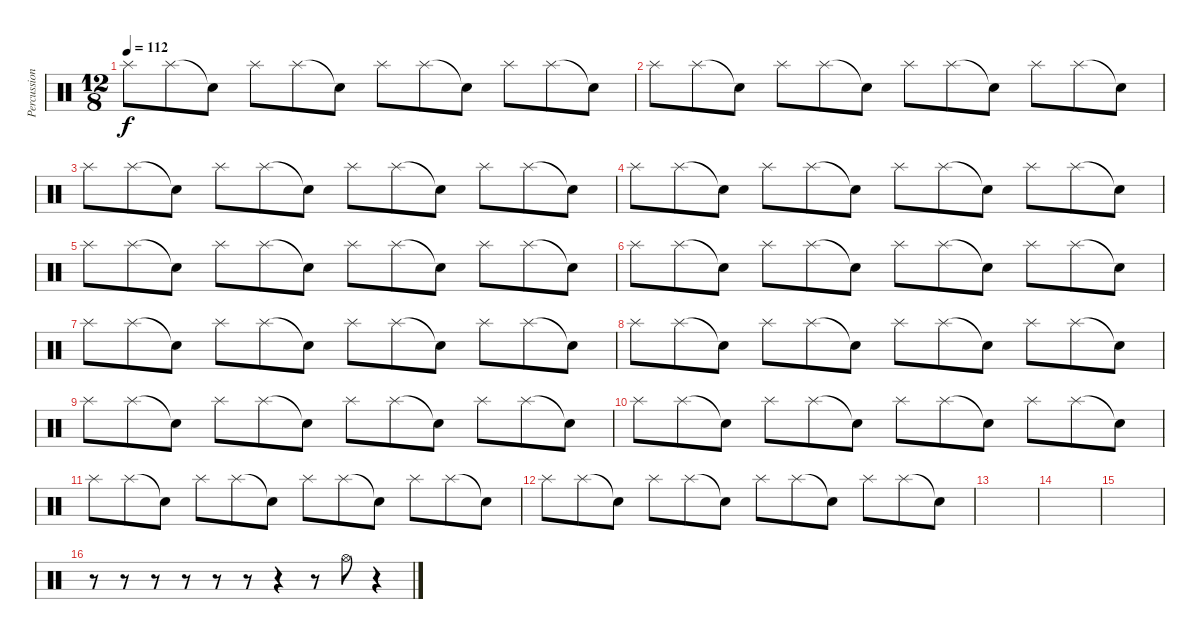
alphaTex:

\track ("Percussions" "Percussion") {instrument percussion}
\staff {score}
\articulation defaults
\ts (12 8)
\tempo 112
\clef neutral
\ks c "Splash (hit)".8{dy f} "Splash (hit)".8 "Snare (hit)"{t}.8 "Splash (hit)".8 "Splash (hit)".8 "Snare (hit)"{t}.8 "Splash (hit)".8 "Splash (hit)".8 "Snare (hit)"{t}.8 "Splash (hit)".8 "Splash (hit)".8 "Snare (hit)"{t}.8
|
"Splash (hit)".8 "Splash (hit)".8 "Snare (hit)"{t}.8 "Splash (hit)".8 "Splash (hit)".8 "Snare (hit)"{t}.8 "Splash (hit)".8 "Splash (hit)".8 "Snare (hit)"{t}.8 "Splash (hit)".8 "Splash (hit)".8 "Snare (hit)"{t}.8 |
"Splash (hit)".8 "Splash (hit)".8 "Snare (hit)"{t}.8 "Splash (hit)".8 "Splash (hit)".8 "Snare (hit)"{t}.8 "Splash (hit)".8 "Splash (hit)".8 "Snare (hit)"{t}.8 "Splash (hit)".8 "Splash (hit)".8 "Snare (hit)"{t}.8 |
"Splash (hit)".8 "Splash (hit)".8 "Snare (hit)"{t}.8 "Splash (hit)".8 "Splash (hit)".8 "Snare (hit)"{t}.8 "Splash (hit)".8 "Splash (hit)".8 "Snare (hit)"{t}.8 "Splash (hit)".8 "Splash (hit)".8 "Snare (hit)"{t}.8 |
"Splash (hit)".8 "Splash (hit)".8 "Snare (hit)"{t}.8 "Splash (hit)".8 "Splash (hit)".8 "Snare (hit)"{t}.8 "Splash (hit)".8 "Splash (hit)".8 "Snare (hit)"{t}.8 "Splash (hit)".8 "Splash (hit)".8 "Snare (hit)"{t}.8 |
"Splash (hit)".8 "Splash (hit)".8 "Snare (hit)"{t}.8 "Splash (hit)".8 "Splash (hit)".8 "Snare (hit)"{t}.8 "Splash (hit)".8 "Splash (hit)".8 "Snare (hit)"{t}.8 "Splash (hit)".8 "Splash (hit)".8 "Snare (hit)"{t}.8 |
"Splash (hit)".8{volume 3} "Splash (hit)".8 "Snare (hit)"{t}.8 "Splash (hit)".8{volume 9} "Splash (hit)".8 "Snare (hit)"{t}.8 "Splash (hit)".8 "Splash (hit)".8 "Snare (hit)"{t}.8 "Splash (hit)".8 "Splash (hit)".8 "Snare (hit)"{t}.8 |
"Splash (hit)".8 "Splash (hit)".8 "Snare (hit)"{t}.8 "Splash (hit)".8 "Splash (hit)".8 "Snare (hit)"{t}.8 "Splash (hit)".8 "Splash (hit)".8 "Snare (hit)"{t}.8 "Splash (hit)".8 "Splash (hit)".8 "Snare (hit)"{t}.8 |
"Splash (hit)".8 "Splash (hit)".8 "Snare (hit)"{t}.8 "Splash (hit)".8 "Splash (hit)".8 "Snare (hit)"{t}.8 "Splash (hit)".8 "Splash (hit)".8 "Snare (hit)"{t}.8 "Splash (hit)".8 "Splash (hit)".8 "Snare (hit)"{t}.8 |
"Splash (hit)".8 "Splash (hit)".8 "Snare (hit)"{t}.8 "Splash (hit)".8 "Splash (hit)".8 "Snare (hit)"{t}.8 "Splash (hit)".8 "Splash (hit)".8 "Snare (hit)"{t}.8 "Splash (hit)".8 "Splash (hit)".8 "Snare (hit)"{t}.8 |
"Splash (hit)".8 "Splash (hit)".8 "Snare (hit)"{t}.8 "Splash (hit)".8 "Splash (hit)".8 "Snare (hit)"{t}.8 "Splash (hit)".8 "Splash (hit)".8 "Snare (hit)"{t}.8 "Splash (hit)".8 "Splash (hit)".8 "Snare (hit)"{t}.8 |
"Splash (hit)".8 "Splash (hit)".8 "Snare (hit)"{t}.8 "Splash (hit)".8 "Splash (hit)".8 "Snare (hit)"{t}.8 "Splash (hit)".8 "Splash (hit)".8 "Snare (hit)"{t}.8 "Splash (hit)".8 "Splash (hit)".8 "Snare (hit)"{t}.8 |
|
|
|
r.8 r.8 r.8 r.8 r.8 r.8 r.4 r.8 "Hi-Hat (open)".8 r.4
